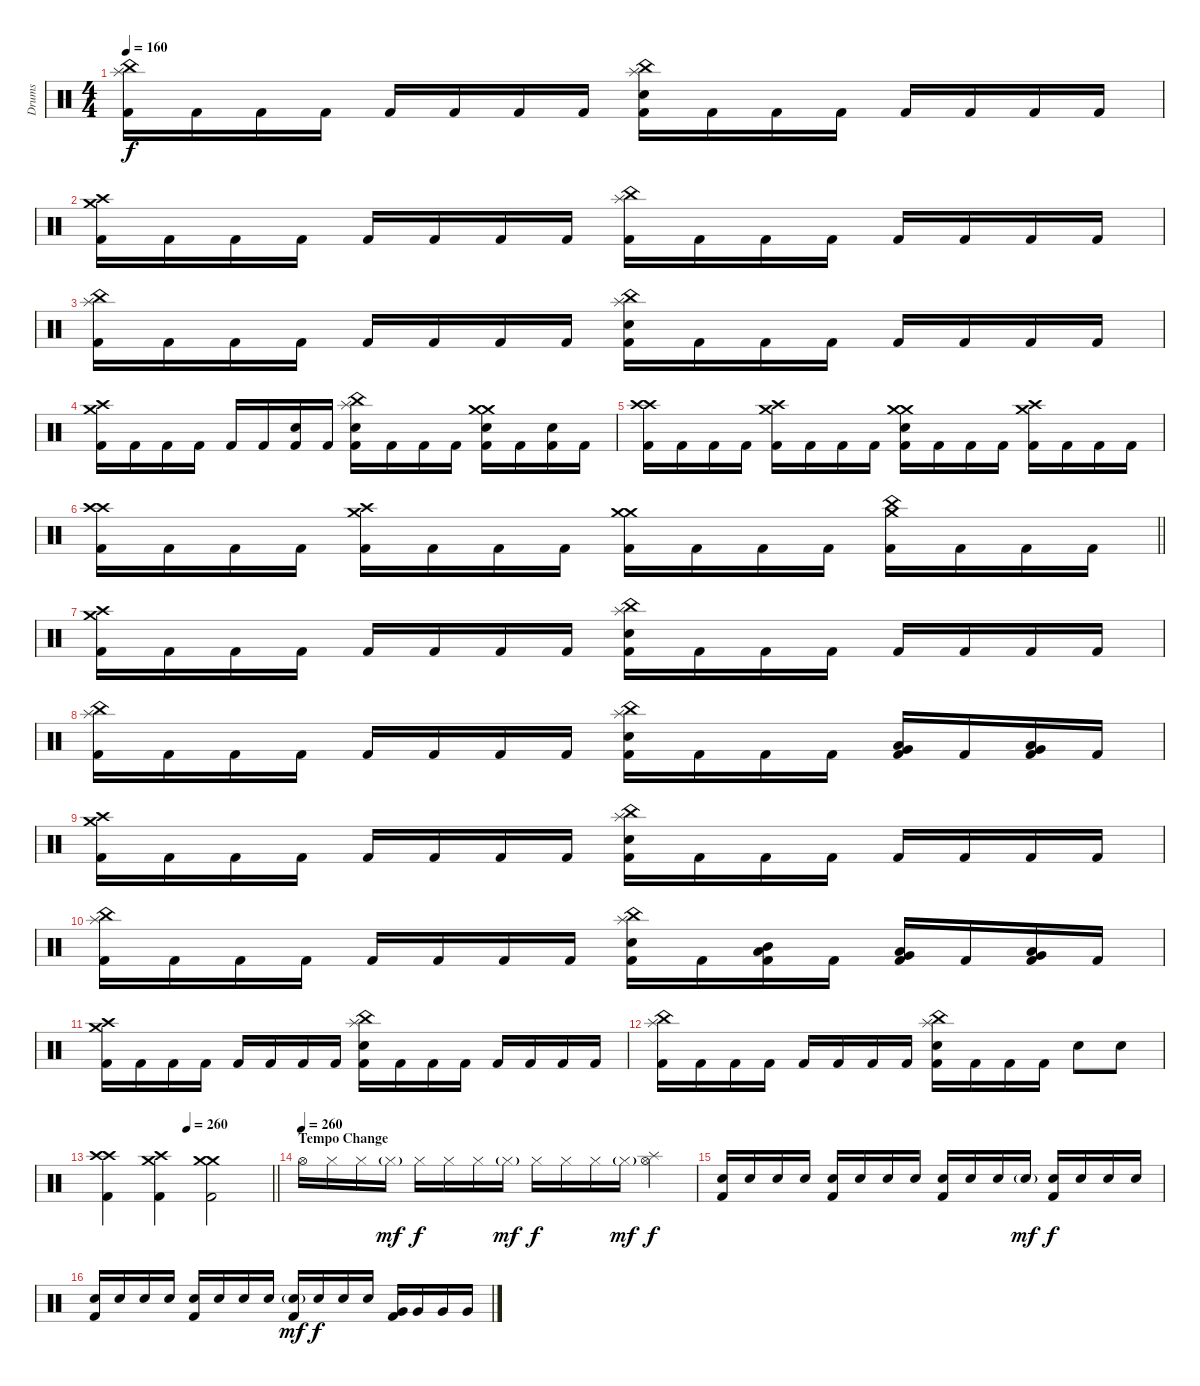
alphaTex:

\track ("Drums" "Drums") {instrument percussion}
\staff {score}
\articulation defaults
\ts (4 4)
\tempo 160
\clef neutral
\ks c
("China (hit)" "Splash (hit)" "Kick (hit) 2").16{dy f} "Kick (hit) 2".16 "Kick (hit) 2".16 "Kick (hit) 2".16 "Kick (hit) 2".16 "Kick (hit) 2".16 "Kick (hit) 2".16 "Kick (hit) 2".16 ("China (hit)" "Splash (hit)" "Electric Snare (hit)" "Kick (hit) 2").16 "Kick (hit) 2".16 "Kick (hit) 2".16 "Kick (hit) 2".16 "Kick (hit) 2".16 "Kick (hit) 2".16 "Kick (hit) 2".16 "Kick (hit) 2".16 |
("Crash high (hit)" "Crash medium (hit)" "Kick (hit) 2").16 "Kick (hit) 2".16 "Kick (hit) 2".16 "Kick (hit) 2".16 "Kick (hit) 2".16 "Kick (hit) 2".16 "Kick (hit) 2".16 "Kick (hit) 2".16 ("China (hit)" "Splash (hit)" "Kick (hit) 2").16 "Kick (hit) 2".16 "Kick (hit) 2".16 "Kick (hit) 2".16 "Kick (hit) 2".16 "Kick (hit) 2".16 "Kick (hit) 2".16 "Kick (hit) 2".16 |
("China (hit)" "Splash (hit)" "Kick (hit) 2").16 "Kick (hit) 2".16 "Kick (hit) 2".16 "Kick (hit) 2".16 "Kick (hit) 2".16 "Kick (hit) 2".16 "Kick (hit) 2".16 "Kick (hit) 2".16 ("China (hit)" "Splash (hit)" "Electric Snare (hit)" "Kick (hit) 2").16 "Kick (hit) 2".16 "Kick (hit) 2".16 "Kick (hit) 2".16 "Kick (hit) 2".16 "Kick (hit) 2".16 "Kick (hit) 2".16 "Kick (hit) 2".16 |
("Crash high (hit)" "Crash medium (hit)" "Kick (hit) 2").16 "Kick (hit) 2".16 "Kick (hit) 2".16 "Kick (hit) 2".16 "Kick (hit) 2".16 "Kick (hit) 2".16 ("Electric Snare (hit)" "Kick (hit) 2").16 "Kick (hit) 2".16 ("China (hit)" "Splash (hit)" "Electric Snare (hit)" "Kick (hit) 2").16 "Kick (hit) 2".16 "Kick (hit) 2".16 "Kick (hit) 2".16 ("Crash medium (hit)" "Crash medium (hit)" "Electric Snare (hit)" "Kick (hit) 2").16 "Kick (hit) 2".16 ("Electric Snare (hit)" "Kick (hit) 2").16 "Kick (hit) 2".16 |
("Crash high (hit)" "Crash high (hit)" "Kick (hit) 2").16 "Kick (hit) 2".16 "Kick (hit) 2".16 "Kick (hit) 2".16 ("Crash high (hit)" "Crash medium (hit)" "Kick (hit) 2").16 "Kick (hit) 2".16 "Kick (hit) 2".16 "Kick (hit) 2".16 ("Crash medium (hit)" "Crash medium (hit)" "Electric Snare (hit)" "Kick (hit) 2").16 "Kick (hit) 2".16 "Kick (hit) 2".16 "Kick (hit) 2".16 ("Crash high (hit)" "Crash medium (hit)" "Kick (hit) 2").16 "Kick (hit) 2".16 "Kick (hit) 2".16 "Kick (hit) 2".16 |
\barLineRight lightlight
("Crash high (hit)" "Crash high (hit)" "Kick (hit) 2").16 "Kick (hit) 2".16 "Kick (hit) 2".16 "Kick (hit) 2".16 ("Crash high (hit)" "Crash medium (hit)" "Kick (hit) 2").16 "Kick (hit) 2".16 "Kick (hit) 2".16 "Kick (hit) 2".16 ("Crash medium (hit)" "Crash medium (hit)" "Kick (hit) 2").16 "Kick (hit) 2".16 "Kick (hit) 2".16 "Kick (hit) 2".16 ("Crash medium (hit)" "China (hit)" "Kick (hit) 2").16 "Kick (hit) 2".16 "Kick (hit) 2".16 "Kick (hit) 2".16 |
("Crash high (hit)" "Crash medium (hit)" "Kick (hit) 2").16 "Kick (hit) 2".16 "Kick (hit) 2".16 "Kick (hit) 2".16 "Kick (hit) 2".16 "Kick (hit) 2".16 "Kick (hit) 2".16 "Kick (hit) 2".16 ("China (hit)" "Splash (hit)" "Electric Snare (hit)" "Kick (hit) 2").16 "Kick (hit) 2".16 "Kick (hit) 2".16 "Kick (hit) 2".16 "Kick (hit) 2".16 "Kick (hit) 2".16 "Kick (hit) 2".16 "Kick (hit) 2".16 |
("China (hit)" "Splash (hit)" "Kick (hit) 2").16 "Kick (hit) 2".16 "Kick (hit) 2".16 "Kick (hit) 2".16 "Kick (hit) 2".16 "Kick (hit) 2".16 "Kick (hit) 2".16 "Kick (hit) 2".16 ("China (hit)" "Splash (hit)" "Electric Snare (hit)" "Kick (hit) 2").16 "Kick (hit) 2".16 "Kick (hit) 2".16 "Kick (hit) 2".16 ("Low Tom (hit)" "Very Low Tom (hit)" "Kick (hit) 2").16 "Kick (hit) 2".16 ("Very Low Tom (hit)" "Low Floor Tom (hit)" "Kick (hit) 2").16 "Kick (hit) 2".16 |
("Crash high (hit)" "Crash medium (hit)" "Kick (hit) 2").16 "Kick (hit) 2".16 "Kick (hit) 2".16 "Kick (hit) 2".16 "Kick (hit) 2".16 "Kick (hit) 2".16 "Kick (hit) 2".16 "Kick (hit) 2".16 ("China (hit)" "Splash (hit)" "Electric Snare (hit)" "Kick (hit) 2").16 "Kick (hit) 2".16 "Kick (hit) 2".16 "Kick (hit) 2".16 "Kick (hit) 2".16 "Kick (hit) 2".16 "Kick (hit) 2".16 "Kick (hit) 2".16 |
("China (hit)" "Splash (hit)" "Kick (hit) 2").16 "Kick (hit) 2".16 "Kick (hit) 2".16 "Kick (hit) 2".16 "Kick (hit) 2".16 "Kick (hit) 2".16 "Kick (hit) 2".16 "Kick (hit) 2".16 ("China (hit)" "Splash (hit)" "Electric Snare (hit)" "Kick (hit) 2").16 "Kick (hit) 2".16 ("Mid Tom (hit)" "Low Tom (hit)" "Kick (hit) 2").16 "Kick (hit) 2".16 ("Low Tom (hit)" "Very Low Tom (hit)" "Kick (hit) 2").16 "Kick (hit) 2".16 ("Very Low Tom (hit)" "Low Floor Tom (hit)" "Kick (hit) 2").16 "Kick (hit) 2".16 |
("Crash high (hit)" "Crash medium (hit)" "Kick (hit) 2").16 "Kick (hit) 2".16 "Kick (hit) 2".16 "Kick (hit) 2".16 "Kick (hit) 2".16 "Kick (hit) 2".16 "Kick (hit) 2".16 "Kick (hit) 2".16 ("China (hit)" "Splash (hit)" "Electric Snare (hit)" "Kick (hit) 2").16 "Kick (hit) 2".16 "Kick (hit) 2".16 "Kick (hit) 2".16 "Kick (hit) 2".16 "Kick (hit) 2".16 "Kick (hit) 2".16 "Kick (hit) 2".16 |
("China (hit)" "Splash (hit)" "Kick (hit) 2").16 "Kick (hit) 2".16 "Kick (hit) 2".16 "Kick (hit) 2".16 "Kick (hit) 2".16 "Kick (hit) 2".16 "Kick (hit) 2".16 "Kick (hit) 2".16 ("China (hit)" "Splash (hit)" "Electric Snare (hit)" "Kick (hit) 2").16 "Kick (hit) 2".16 "Kick (hit) 2".16 "Kick (hit) 2".16 "Electric Snare (hit)".8 "Electric Snare (hit)".8 |
\tempo (260 0.5)
\barLineRight lightlight
("Crash high (hit)" "Crash high (hit)" "Kick (hit) 2").4 ("Crash medium (hit)" "Crash high (hit)" "Kick (hit) 2").4 ("Crash medium (hit)" "Crash medium (hit)" "Kick (hit) 2").2 |
\section ("" "Tempo Change")
\tempo (260)
"Hi-Hat (open)".16 "Hi-Hat (closed)".16 "Hi-Hat (closed)".16 "Hi-Hat (closed)"{g}.16{dy mf} "Hi-Hat (closed)".16{dy f} "Hi-Hat (closed)".16 "Hi-Hat (closed)".16 "Hi-Hat (closed)"{g}.16{dy mf} "Hi-Hat (closed)".16{dy f} "Hi-Hat (closed)".16 "Hi-Hat (closed)".16 "Hi-Hat (closed)"{g}.16{dy mf} ("Splash (hit)" "Hi-Hat (open)").4{dy f} |
("Electric Snare (hit)" "Kick (hit) 2").16 "Electric Snare (hit)".16 "Electric Snare (hit)".16 "Electric Snare (hit)".16 ("Electric Snare (hit)" "Kick (hit) 2").16 "Electric Snare (hit)".16 "Electric Snare (hit)".16 "Electric Snare (hit)".16 ("Electric Snare (hit)" "Kick (hit) 2").16 "Electric Snare (hit)".16 "Electric Snare (hit)".16 "Electric Snare (hit)"{g}.16{dy mf} ("Electric Snare (hit)" "Kick (hit) 2").16{dy f} "Electric Snare (hit)".16 "Electric Snare (hit)".16 "Electric Snare (hit)".16 |
("Electric Snare (hit)" "Kick (hit) 2").16 "Electric Snare (hit)".16 "Electric Snare (hit)".16 "Electric Snare (hit)".16 ("Electric Snare (hit)" "Kick (hit) 2").16 "Electric Snare (hit)".16 "Electric Snare (hit)".16 "Electric Snare (hit)".16 ("Electric Snare (hit)"{g} "Kick (hit) 2").16{dy mf} "Electric Snare (hit)".16{dy f} "Electric Snare (hit)".16 "Electric Snare (hit)".16 ("Very Low Tom (hit)" "Kick (hit) 2").16 "Very Low Tom (hit)".16 "Very Low Tom (hit)".16 "Very Low Tom (hit)".16
